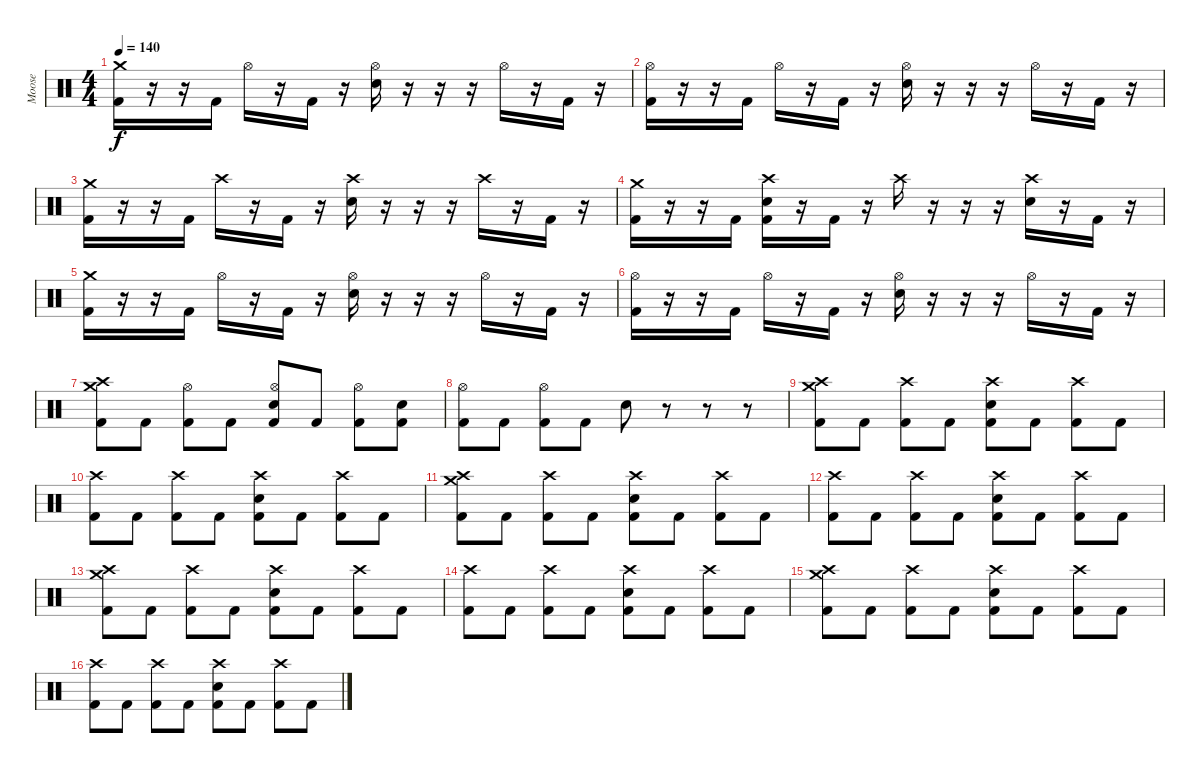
\track ("Moose" "Moose") {instrument percussion}
\staff {score}
\articulation defaults
\ts (4 4)
\tempo 140
\clef neutral
\ks c
("Crash medium (hit)" "Kick (hit) 2").16{dy f} r.16 r.16 "Kick (hit) 2".16 "Hi-Hat (open)".16 r.16 "Kick (hit) 2".16 r.16 ("Hi-Hat (open)" "Snare (hit) 2").16 r.16 r.16 r.16 "Hi-Hat (open)".16 r.16 "Kick (hit) 2".16 r.16 |
("Hi-Hat (open)" "Kick (hit) 2").16 r.16 r.16 "Kick (hit) 2".16 "Hi-Hat (open)".16 r.16 "Kick (hit) 2".16 r.16 ("Hi-Hat (open)" "Snare (hit) 2").16 r.16 r.16 r.16 "Hi-Hat (open)".16 r.16 "Kick (hit) 2".16 r.16 |
("Crash medium (hit)" "Kick (hit) 2").16 r.16 r.16 "Kick (hit) 2".16 "Crash high (hit)".16 r.16 "Kick (hit) 2".16 r.16 ("Crash high (hit)" "Snare (hit) 2").16 r.16 r.16 r.16 "Crash high (hit)".16 r.16 "Kick (hit) 2".16 r.16 |
("Crash medium (hit)" "Kick (hit) 2").16 r.16 r.16 "Kick (hit) 2".16 ("Crash high (hit)" "Snare (hit) 2" "Kick (hit) 2").16 r.16 "Kick (hit) 2".16 r.16 "Crash high (hit)".16 r.16 r.16 r.16 ("Crash high (hit)" "Snare (hit) 2").16 r.16 "Kick (hit) 2".16 r.16 |
("Crash medium (hit)" "Kick (hit) 2").16 r.16 r.16 "Kick (hit) 2".16 "Hi-Hat (open)".16 r.16 "Kick (hit) 2".16 r.16 ("Hi-Hat (open)" "Snare (hit) 2").16 r.16 r.16 r.16 "Hi-Hat (open)".16 r.16 "Kick (hit) 2".16 r.16 |
("Hi-Hat (open)" "Kick (hit) 2").16 r.16 r.16 "Kick (hit) 2".16 "Hi-Hat (open)".16 r.16 "Kick (hit) 2".16 r.16 ("Hi-Hat (open)" "Snare (hit) 2").16 r.16 r.16 r.16 "Hi-Hat (open)".16 r.16 "Kick (hit) 2".16 r.16 |
("Crash medium (hit)" "Crash high (hit)" "Kick (hit) 2").8 "Kick (hit) 2".8 ("Hi-Hat (open)" "Kick (hit) 2").8 "Kick (hit) 2".8 ("Hi-Hat (open)" "Snare (hit) 2" "Kick (hit) 2").8 "Kick (hit) 2".8 ("Hi-Hat (open)" "Kick (hit) 2").8 ("Snare (hit) 2" "Kick (hit) 2").8 |
("Hi-Hat (open)" "Kick (hit) 2").8 "Kick (hit) 2".8 ("Hi-Hat (open)" "Kick (hit) 2").8 "Kick (hit) 2".8 "Snare (hit) 2".8 r.8 r.8 r.8 |
("Crash high (hit)" "Crash medium (hit)" "Kick (hit) 2").8 "Kick (hit) 2".8 ("Crash high (hit)" "Kick (hit) 2").8 "Kick (hit) 2".8 ("Crash high (hit)" "Snare (hit) 2" "Kick (hit) 2").8 "Kick (hit) 2".8 ("Crash high (hit)" "Kick (hit) 2").8 "Kick (hit) 2".8 |
("Crash high (hit)" "Kick (hit) 2").8 "Kick (hit) 2".8 ("Crash high (hit)" "Kick (hit) 2").8 "Kick (hit) 2".8 ("Crash high (hit)" "Snare (hit) 2" "Kick (hit) 2").8 "Kick (hit) 2".8 ("Crash high (hit)" "Kick (hit) 2").8 "Kick (hit) 2".8 |
("Crash high (hit)" "Crash medium (hit)" "Kick (hit) 2").8 "Kick (hit) 2".8 ("Crash high (hit)" "Kick (hit) 2").8 "Kick (hit) 2".8 ("Crash high (hit)" "Snare (hit) 2" "Kick (hit) 2").8 "Kick (hit) 2".8 ("Crash high (hit)" "Kick (hit) 2").8 "Kick (hit) 2".8 |
("Crash high (hit)" "Kick (hit) 2").8 "Kick (hit) 2".8 ("Crash high (hit)" "Kick (hit) 2").8 "Kick (hit) 2".8 ("Crash high (hit)" "Snare (hit) 2" "Kick (hit) 2").8 "Kick (hit) 2".8 ("Crash high (hit)" "Kick (hit) 2").8 "Kick (hit) 2".8 |
("Crash high (hit)" "Crash medium (hit)" "Kick (hit) 2").8 "Kick (hit) 2".8 ("Crash high (hit)" "Kick (hit) 2").8 "Kick (hit) 2".8 ("Crash high (hit)" "Snare (hit) 2" "Kick (hit) 2").8 "Kick (hit) 2".8 ("Crash high (hit)" "Kick (hit) 2").8 "Kick (hit) 2".8 |
("Crash high (hit)" "Kick (hit) 2").8 "Kick (hit) 2".8 ("Crash high (hit)" "Kick (hit) 2").8 "Kick (hit) 2".8 ("Crash high (hit)" "Snare (hit) 2" "Kick (hit) 2").8 "Kick (hit) 2".8 ("Crash high (hit)" "Kick (hit) 2").8 "Kick (hit) 2".8 |
("Crash high (hit)" "Crash medium (hit)" "Kick (hit) 2").8 "Kick (hit) 2".8 ("Crash high (hit)" "Kick (hit) 2").8 "Kick (hit) 2".8 ("Crash high (hit)" "Snare (hit) 2" "Kick (hit) 2").8 "Kick (hit) 2".8 ("Crash high (hit)" "Kick (hit) 2").8 "Kick (hit) 2".8 |
("Crash high (hit)" "Kick (hit) 2").8 "Kick (hit) 2".8 ("Crash high (hit)" "Kick (hit) 2").8 "Kick (hit) 2".8 ("Crash high (hit)" "Snare (hit) 2" "Kick (hit) 2").8 "Kick (hit) 2".8 ("Crash high (hit)" "Kick (hit) 2").8 "Kick (hit) 2".8
